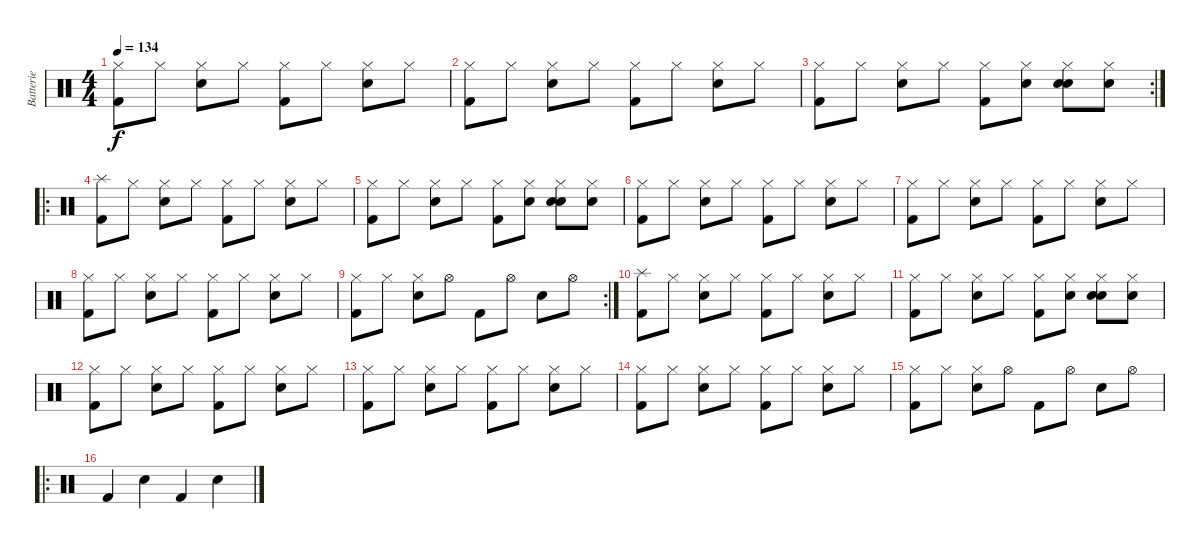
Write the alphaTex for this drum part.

\track ("Batterie" "Batterie") {instrument percussion}
\staff {score}
\articulation defaults
\ts (4 4)
\tempo 134
\clef neutral
\ks c
("Kick (hit) 2" "Hi-Hat (closed)").8{dy f} "Hi-Hat (closed)".8 ("Snare (hit) 2" "Hi-Hat (closed)").8 "Hi-Hat (closed)".8 ("Kick (hit) 2" "Hi-Hat (closed)").8 "Hi-Hat (closed)".8 ("Snare (hit) 2" "Hi-Hat (closed)").8 "Hi-Hat (closed)".8 |
("Kick (hit) 2" "Hi-Hat (closed)").8 "Hi-Hat (closed)".8 ("Snare (hit) 2" "Hi-Hat (closed)").8 "Hi-Hat (closed)".8 ("Kick (hit) 2" "Hi-Hat (closed)").8 "Hi-Hat (closed)".8 ("Snare (hit) 2" "Hi-Hat (closed)").8 "Hi-Hat (closed)".8 |
\rc 2
("Kick (hit) 2" "Hi-Hat (closed)").8 "Hi-Hat (closed)".8 ("Snare (hit) 2" "Hi-Hat (closed)").8 "Hi-Hat (closed)".8 ("Kick (hit) 2" "Hi-Hat (closed)").8 ("Hi-Hat (closed)" "Hand Clap (hit)").8 ("Snare (hit) 2" "Hi-Hat (closed)" "Hand Clap (hit)").8 ("Hi-Hat (closed)" "Hand Clap (hit)").8 |
\ro
("Kick (hit) 2" "Splash (hit)").8 "Hi-Hat (closed)".8 ("Snare (hit) 2" "Hi-Hat (closed)").8 "Hi-Hat (closed)".8 ("Kick (hit) 2" "Hi-Hat (closed)").8 "Hi-Hat (closed)".8 ("Snare (hit) 2" "Hi-Hat (closed)").8 "Hi-Hat (closed)".8 |
("Kick (hit) 2" "Hi-Hat (closed)").8 "Hi-Hat (closed)".8 ("Snare (hit) 2" "Hi-Hat (closed)").8 "Hi-Hat (closed)".8 ("Kick (hit) 2" "Hi-Hat (closed)").8 ("Hi-Hat (closed)" "Hand Clap (hit)").8 ("Snare (hit) 2" "Hi-Hat (closed)" "Hand Clap (hit)").8 ("Hi-Hat (closed)" "Hand Clap (hit)").8 |
("Kick (hit) 2" "Hi-Hat (closed)").8 "Hi-Hat (closed)".8 ("Snare (hit) 2" "Hi-Hat (closed)").8 "Hi-Hat (closed)".8 ("Kick (hit) 2" "Hi-Hat (closed)").8 "Hi-Hat (closed)".8 ("Snare (hit) 2" "Hi-Hat (closed)").8 "Hi-Hat (closed)".8 |
("Kick (hit) 2" "Hi-Hat (closed)").8 "Hi-Hat (closed)".8 ("Snare (hit) 2" "Hi-Hat (closed)").8 "Hi-Hat (closed)".8 ("Kick (hit) 2" "Hi-Hat (closed)").8 "Hi-Hat (closed)".8 ("Snare (hit) 2" "Hi-Hat (closed)").8 "Hi-Hat (closed)".8 |
("Kick (hit) 2" "Hi-Hat (closed)").8 "Hi-Hat (closed)".8 ("Snare (hit) 2" "Hi-Hat (closed)").8 "Hi-Hat (closed)".8 ("Kick (hit) 2" "Hi-Hat (closed)").8 "Hi-Hat (closed)".8 ("Snare (hit) 2" "Hi-Hat (closed)").8 "Hi-Hat (closed)".8 |
\rc 2
("Kick (hit) 2" "Hi-Hat (closed)").8 "Hi-Hat (closed)".8 ("Snare (hit) 2" "Hi-Hat (closed)").8 "Hi-Hat (open)".8 "Kick (hit) 2".8 "Hi-Hat (open)".8 "Snare (hit) 2".8 "Hi-Hat (open)".8 |
("Kick (hit) 2" "Splash (hit)").8 "Hi-Hat (closed)".8 ("Snare (hit) 2" "Hi-Hat (closed)").8 "Hi-Hat (closed)".8 ("Kick (hit) 2" "Hi-Hat (closed)").8 "Hi-Hat (closed)".8 ("Snare (hit) 2" "Hi-Hat (closed)").8 "Hi-Hat (closed)".8 |
("Kick (hit) 2" "Hi-Hat (closed)").8 "Hi-Hat (closed)".8 ("Snare (hit) 2" "Hi-Hat (closed)").8 "Hi-Hat (closed)".8 ("Kick (hit) 2" "Hi-Hat (closed)").8 ("Hi-Hat (closed)" "Hand Clap (hit)").8 ("Snare (hit) 2" "Hi-Hat (closed)" "Hand Clap (hit)").8 ("Hi-Hat (closed)" "Hand Clap (hit)").8 |
("Kick (hit) 2" "Hi-Hat (closed)").8 "Hi-Hat (closed)".8 ("Snare (hit) 2" "Hi-Hat (closed)").8 "Hi-Hat (closed)".8 ("Kick (hit) 2" "Hi-Hat (closed)").8 "Hi-Hat (closed)".8 ("Snare (hit) 2" "Hi-Hat (closed)").8 "Hi-Hat (closed)".8 |
("Kick (hit) 2" "Hi-Hat (closed)").8 "Hi-Hat (closed)".8 ("Snare (hit) 2" "Hi-Hat (closed)").8 "Hi-Hat (closed)".8 ("Kick (hit) 2" "Hi-Hat (closed)").8 "Hi-Hat (closed)".8 ("Snare (hit) 2" "Hi-Hat (closed)").8 "Hi-Hat (closed)".8 |
("Kick (hit) 2" "Hi-Hat (closed)").8 "Hi-Hat (closed)".8 ("Snare (hit) 2" "Hi-Hat (closed)").8 "Hi-Hat (closed)".8 ("Kick (hit) 2" "Hi-Hat (closed)").8 "Hi-Hat (closed)".8 ("Snare (hit) 2" "Hi-Hat (closed)").8 "Hi-Hat (closed)".8 |
("Kick (hit) 2" "Hi-Hat (closed)").8 "Hi-Hat (closed)".8 ("Snare (hit) 2" "Hi-Hat (closed)").8 "Hi-Hat (open)".8 "Kick (hit) 2".8 "Hi-Hat (open)".8 "Snare (hit) 2".8 "Hi-Hat (open)".8 |
\ro "Kick (hit) 2".4 "Snare (hit) 2".4 "Kick (hit) 2".4 "Snare (hit) 2".4
